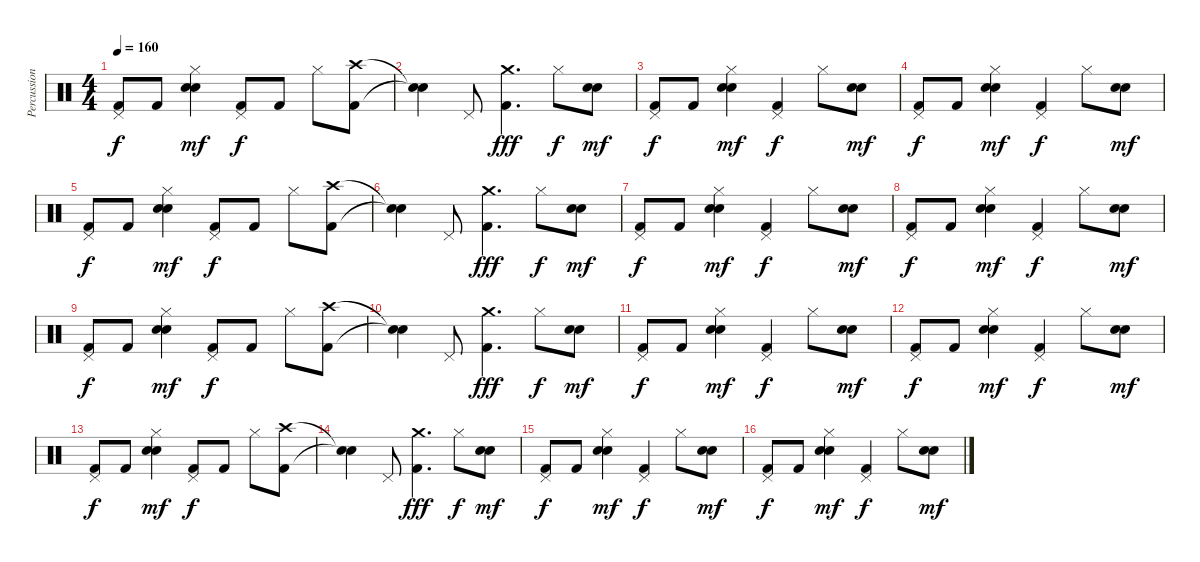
\track ("Percussion" "Percussion") {instrument percussion}
\staff {score}
\articulation defaults
\ts (4 4)
\tempo 160
\clef neutral
\ks c
("Kick (hit) 2" "Pedal Hi-Hat (hit)").8{dy f} "Kick (hit) 2".8 ("Snare (hit) 2" "Hi-Hat (closed)" "Electric Snare (hit)").4{dy mf} ("Kick (hit) 2" "Pedal Hi-Hat (hit)").8{dy f} "Kick (hit) 2".8 "Hi-Hat (closed)".8 ("Crash high (hit)" "Kick (hit) 2").8 |
("Snare (hit)"{t} "Snare (hit)"{t}).4 "Pedal Hi-Hat (hit)".8 ("Crash medium (hit)" "Kick (hit) 2").4{d dy fff} "Hi-Hat (closed)".8{dy f} ("Snare (hit) 2" "Electric Snare (hit)").8{dy mf} |
("Pedal Hi-Hat (hit)" "Kick (hit) 2").8{dy f} "Kick (hit) 2".8 ("Hi-Hat (closed)" "Snare (hit) 2" "Electric Snare (hit)").4{dy mf} ("Pedal Hi-Hat (hit)" "Kick (hit) 2").4{dy f} "Hi-Hat (closed)".8 ("Snare (hit) 2" "Electric Snare (hit)").8{dy mf} |
("Pedal Hi-Hat (hit)" "Kick (hit) 2").8{dy f} "Kick (hit) 2".8 ("Hi-Hat (closed)" "Snare (hit) 2" "Electric Snare (hit)").4{dy mf} ("Pedal Hi-Hat (hit)" "Kick (hit) 2").4{dy f} "Hi-Hat (closed)".8 ("Snare (hit) 2" "Electric Snare (hit)").8{dy mf} |
("Kick (hit) 2" "Pedal Hi-Hat (hit)").8{dy f} "Kick (hit) 2".8 ("Snare (hit) 2" "Hi-Hat (closed)" "Electric Snare (hit)").4{dy mf} ("Kick (hit) 2" "Pedal Hi-Hat (hit)").8{dy f} "Kick (hit) 2".8 "Hi-Hat (closed)".8 ("Crash high (hit)" "Kick (hit) 2").8 |
("Snare (hit)"{t} "Snare (hit)"{t}).4 "Pedal Hi-Hat (hit)".8 ("Crash medium (hit)" "Kick (hit) 2").4{d dy fff} "Hi-Hat (closed)".8{dy f} ("Snare (hit) 2" "Electric Snare (hit)").8{dy mf} |
("Pedal Hi-Hat (hit)" "Kick (hit) 2").8{dy f} "Kick (hit) 2".8 ("Hi-Hat (closed)" "Snare (hit) 2" "Electric Snare (hit)").4{dy mf} ("Pedal Hi-Hat (hit)" "Kick (hit) 2").4{dy f} "Hi-Hat (closed)".8 ("Snare (hit) 2" "Electric Snare (hit)").8{dy mf} |
("Pedal Hi-Hat (hit)" "Kick (hit) 2").8{dy f} "Kick (hit) 2".8 ("Hi-Hat (closed)" "Snare (hit) 2" "Electric Snare (hit)").4{dy mf} ("Pedal Hi-Hat (hit)" "Kick (hit) 2").4{dy f} "Hi-Hat (closed)".8 ("Snare (hit) 2" "Electric Snare (hit)").8{dy mf} |
("Kick (hit) 2" "Pedal Hi-Hat (hit)").8{dy f} "Kick (hit) 2".8 ("Snare (hit) 2" "Hi-Hat (closed)" "Electric Snare (hit)").4{dy mf} ("Kick (hit) 2" "Pedal Hi-Hat (hit)").8{dy f} "Kick (hit) 2".8 "Hi-Hat (closed)".8 ("Crash high (hit)" "Kick (hit) 2").8 |
("Snare (hit)"{t} "Snare (hit)"{t}).4 "Pedal Hi-Hat (hit)".8 ("Crash medium (hit)" "Kick (hit) 2").4{d dy fff} "Hi-Hat (closed)".8{dy f} ("Snare (hit) 2" "Electric Snare (hit)").8{dy mf} |
("Pedal Hi-Hat (hit)" "Kick (hit) 2").8{dy f} "Kick (hit) 2".8 ("Hi-Hat (closed)" "Snare (hit) 2" "Electric Snare (hit)").4{dy mf} ("Pedal Hi-Hat (hit)" "Kick (hit) 2").4{dy f} "Hi-Hat (closed)".8 ("Snare (hit) 2" "Electric Snare (hit)").8{dy mf} |
("Pedal Hi-Hat (hit)" "Kick (hit) 2").8{dy f} "Kick (hit) 2".8 ("Hi-Hat (closed)" "Snare (hit) 2" "Electric Snare (hit)").4{dy mf} ("Pedal Hi-Hat (hit)" "Kick (hit) 2").4{dy f} "Hi-Hat (closed)".8 ("Snare (hit) 2" "Electric Snare (hit)").8{dy mf} |
("Kick (hit) 2" "Pedal Hi-Hat (hit)").8{dy f} "Kick (hit) 2".8 ("Snare (hit) 2" "Hi-Hat (closed)" "Electric Snare (hit)").4{dy mf} ("Kick (hit) 2" "Pedal Hi-Hat (hit)").8{dy f} "Kick (hit) 2".8 "Hi-Hat (closed)".8 ("Crash high (hit)" "Kick (hit) 2").8 |
("Snare (hit)"{t} "Snare (hit)"{t}).4 "Pedal Hi-Hat (hit)".8 ("Crash medium (hit)" "Kick (hit) 2").4{d dy fff} "Hi-Hat (closed)".8{dy f} ("Snare (hit) 2" "Electric Snare (hit)").8{dy mf} |
("Pedal Hi-Hat (hit)" "Kick (hit) 2").8{dy f} "Kick (hit) 2".8 ("Hi-Hat (closed)" "Snare (hit) 2" "Electric Snare (hit)").4{dy mf} ("Pedal Hi-Hat (hit)" "Kick (hit) 2").4{dy f} "Hi-Hat (closed)".8 ("Snare (hit) 2" "Electric Snare (hit)").8{dy mf} |
("Pedal Hi-Hat (hit)" "Kick (hit) 2").8{dy f} "Kick (hit) 2".8 ("Hi-Hat (closed)" "Snare (hit) 2" "Electric Snare (hit)").4{dy mf} ("Pedal Hi-Hat (hit)" "Kick (hit) 2").4{dy f} "Hi-Hat (closed)".8 ("Snare (hit) 2" "Electric Snare (hit)").8{dy mf}
